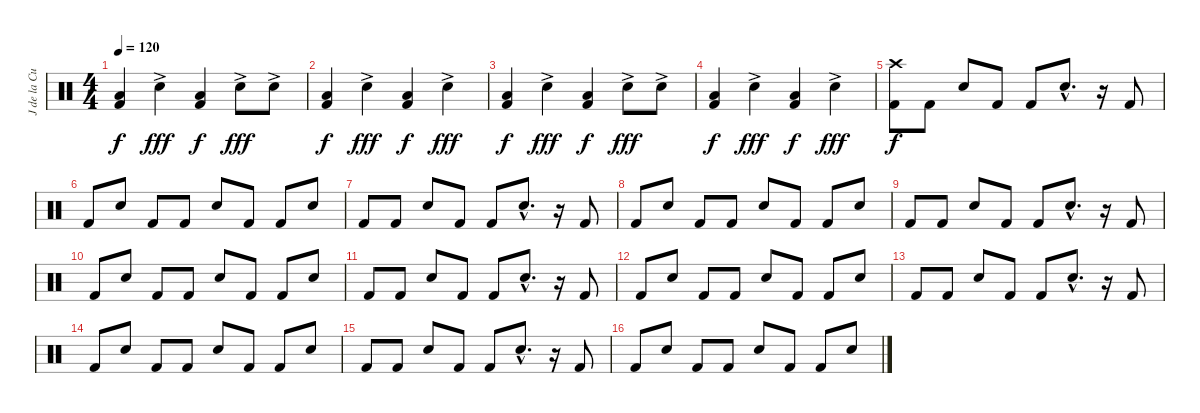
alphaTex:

\track ("J de la Cueva" "J de la Cu") {instrument percussion}
\staff {score}
\articulation defaults
\ts (4 4)
\tempo 120
\clef neutral
\ks c
("Low Tom (hit)" "Kick (hit) 2").4{dy f} "Snare (hit) 2"{ac}.4{dy fff} ("Low Tom (hit)" "Kick (hit) 2").4{dy f} "Snare (hit) 2"{ac}.8{dy fff} "Electric Snare (hit)"{ac}.8 |
("Low Tom (hit)" "Kick (hit) 2").4{dy f} "Snare (hit) 2"{ac}.4{dy fff} ("Low Tom (hit)" "Kick (hit) 2").4{dy f} "Snare (hit) 2"{ac}.4{dy fff} |
("Low Tom (hit)" "Kick (hit) 2").4{dy f} "Snare (hit) 2"{ac}.4{dy fff} ("Low Tom (hit)" "Kick (hit) 2").4{dy f} "Snare (hit) 2"{ac}.8{dy fff} "Electric Snare (hit)"{ac}.8 |
("Low Tom (hit)" "Kick (hit) 2").4{dy f} "Snare (hit) 2"{ac}.4{dy fff} ("Low Tom (hit)" "Kick (hit) 2").4{dy f} "Snare (hit) 2"{ac}.4{dy fff} |
("Crash high (hit)" "Kick (hit) 2").8{dy f} "Kick (hit) 2".8 "Snare (hit) 2".8 "Kick (hit) 2".8 "Kick (hit) 2".8 "Snare (hit) 2"{hac}.8{d} r.16 "Kick (hit) 2".8 |
"Kick (hit) 2".8 "Snare (hit) 2".8 "Kick (hit) 2".8 "Kick (hit) 2".8 "Snare (hit) 2".8 "Kick (hit) 2".8 "Kick (hit) 2".8 "Snare (hit) 2".8 |
"Kick (hit) 2".8 "Kick (hit) 2".8 "Snare (hit) 2".8 "Kick (hit) 2".8 "Kick (hit) 2".8 "Snare (hit) 2"{hac}.8{d} r.16 "Kick (hit) 2".8 |
"Kick (hit) 2".8 "Snare (hit) 2".8 "Kick (hit) 2".8 "Kick (hit) 2".8 "Snare (hit) 2".8 "Kick (hit) 2".8 "Kick (hit) 2".8 "Snare (hit) 2".8 |
"Kick (hit) 2".8 "Kick (hit) 2".8 "Snare (hit) 2".8 "Kick (hit) 2".8 "Kick (hit) 2".8 "Snare (hit) 2"{hac}.8{d} r.16 "Kick (hit) 2".8 |
"Kick (hit) 2".8 "Snare (hit) 2".8 "Kick (hit) 2".8 "Kick (hit) 2".8 "Snare (hit) 2".8 "Kick (hit) 2".8 "Kick (hit) 2".8 "Snare (hit) 2".8 |
"Kick (hit) 2".8 "Kick (hit) 2".8 "Snare (hit) 2".8 "Kick (hit) 2".8 "Kick (hit) 2".8 "Snare (hit) 2"{hac}.8{d} r.16 "Kick (hit) 2".8 |
"Kick (hit) 2".8 "Snare (hit) 2".8 "Kick (hit) 2".8 "Kick (hit) 2".8 "Snare (hit) 2".8 "Kick (hit) 2".8 "Kick (hit) 2".8 "Snare (hit) 2".8 |
"Kick (hit) 2".8 "Kick (hit) 2".8 "Snare (hit) 2".8 "Kick (hit) 2".8 "Kick (hit) 2".8 "Snare (hit) 2"{hac}.8{d} r.16 "Kick (hit) 2".8 |
"Kick (hit) 2".8 "Snare (hit) 2".8 "Kick (hit) 2".8 "Kick (hit) 2".8 "Snare (hit) 2".8 "Kick (hit) 2".8 "Kick (hit) 2".8 "Snare (hit) 2".8 |
"Kick (hit) 2".8 "Kick (hit) 2".8 "Snare (hit) 2".8 "Kick (hit) 2".8 "Kick (hit) 2".8 "Snare (hit) 2"{hac}.8{d} r.16 "Kick (hit) 2".8 |
"Kick (hit) 2".8 "Snare (hit) 2".8 "Kick (hit) 2".8 "Kick (hit) 2".8 "Snare (hit) 2".8 "Kick (hit) 2".8 "Kick (hit) 2".8 "Snare (hit) 2".8
